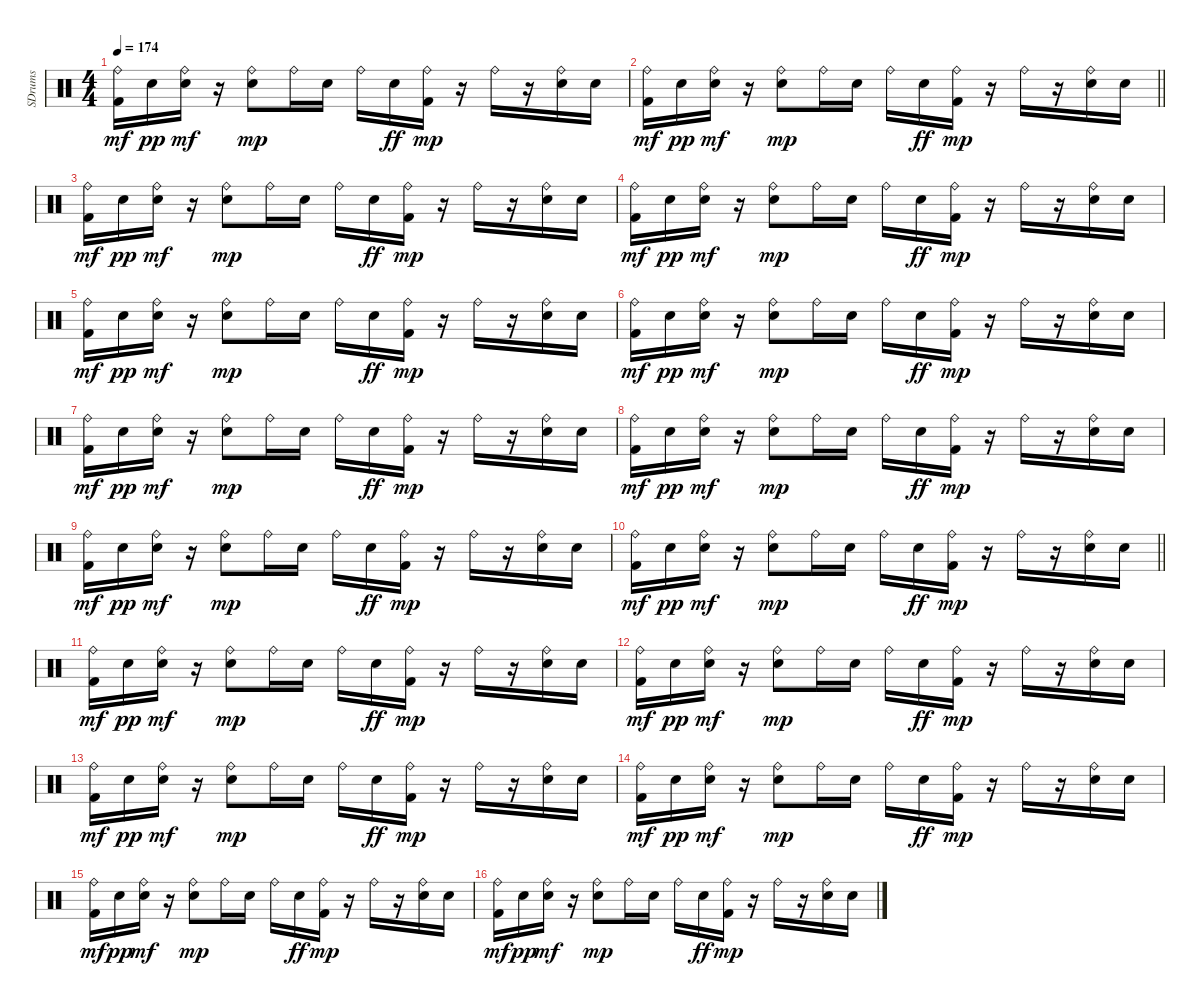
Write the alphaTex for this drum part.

\track ("SDrums" "SDrums") {instrument percussion}
\staff {score}
\articulation defaults
\ts (4 4)
\tempo 174
\clef neutral
\ks c
("Kick (hit) 2" "Ride (bell)").16{dy mf} "Snare (hit) 2".16{dy pp} ("Snare (hit) 2" "Ride (bell)").16{dy mf} r.16 ("Snare (hit) 2" "Ride (bell)").8{dy mp} "Ride (bell)".16 "Snare (hit) 2".16 "Ride (bell)".16 "Snare (hit) 2".16{dy ff} ("Kick (hit) 2" "Ride (bell)").16{dy mp} r.16 "Ride (bell)".16 r.16 ("Snare (hit) 2" "Ride (bell)").16 "Snare (hit) 2".16 |
\barLineRight lightlight
("Kick (hit) 2" "Ride (bell)").16{dy mf} "Snare (hit) 2".16{dy pp} ("Snare (hit) 2" "Ride (bell)").16{dy mf} r.16 ("Snare (hit) 2" "Ride (bell)").8{dy mp} "Ride (bell)".16 "Snare (hit) 2".16 "Ride (bell)".16 "Snare (hit) 2".16{dy ff} ("Kick (hit) 2" "Ride (bell)").16{dy mp} r.16 "Ride (bell)".16 r.16 ("Snare (hit) 2" "Ride (bell)").16 "Snare (hit) 2".16 |
("Kick (hit) 2" "Ride (bell)").16{dy mf} "Snare (hit) 2".16{dy pp} ("Snare (hit) 2" "Ride (bell)").16{dy mf} r.16 ("Snare (hit) 2" "Ride (bell)").8{dy mp} "Ride (bell)".16 "Snare (hit) 2".16 "Ride (bell)".16 "Snare (hit) 2".16{dy ff} ("Kick (hit) 2" "Ride (bell)").16{dy mp} r.16 "Ride (bell)".16 r.16 ("Snare (hit) 2" "Ride (bell)").16 "Snare (hit) 2".16 |
("Kick (hit) 2" "Ride (bell)").16{dy mf} "Snare (hit) 2".16{dy pp} ("Snare (hit) 2" "Ride (bell)").16{dy mf} r.16 ("Snare (hit) 2" "Ride (bell)").8{dy mp} "Ride (bell)".16 "Snare (hit) 2".16 "Ride (bell)".16 "Snare (hit) 2".16{dy ff} ("Kick (hit) 2" "Ride (bell)").16{dy mp} r.16 "Ride (bell)".16 r.16 ("Snare (hit) 2" "Ride (bell)").16 "Snare (hit) 2".16 |
("Kick (hit) 2" "Ride (bell)").16{dy mf} "Snare (hit) 2".16{dy pp} ("Snare (hit) 2" "Ride (bell)").16{dy mf} r.16 ("Snare (hit) 2" "Ride (bell)").8{dy mp} "Ride (bell)".16 "Snare (hit) 2".16 "Ride (bell)".16 "Snare (hit) 2".16{dy ff} ("Kick (hit) 2" "Ride (bell)").16{dy mp} r.16 "Ride (bell)".16 r.16 ("Snare (hit) 2" "Ride (bell)").16 "Snare (hit) 2".16 |
("Kick (hit) 2" "Ride (bell)").16{dy mf} "Snare (hit) 2".16{dy pp} ("Snare (hit) 2" "Ride (bell)").16{dy mf} r.16 ("Snare (hit) 2" "Ride (bell)").8{dy mp} "Ride (bell)".16 "Snare (hit) 2".16 "Ride (bell)".16 "Snare (hit) 2".16{dy ff} ("Kick (hit) 2" "Ride (bell)").16{dy mp} r.16 "Ride (bell)".16 r.16 ("Snare (hit) 2" "Ride (bell)").16 "Snare (hit) 2".16 |
("Kick (hit) 2" "Ride (bell)").16{dy mf} "Snare (hit) 2".16{dy pp} ("Snare (hit) 2" "Ride (bell)").16{dy mf} r.16 ("Snare (hit) 2" "Ride (bell)").8{dy mp} "Ride (bell)".16 "Snare (hit) 2".16 "Ride (bell)".16 "Snare (hit) 2".16{dy ff} ("Kick (hit) 2" "Ride (bell)").16{dy mp} r.16 "Ride (bell)".16 r.16 ("Snare (hit) 2" "Ride (bell)").16 "Snare (hit) 2".16 |
("Kick (hit) 2" "Ride (bell)").16{dy mf} "Snare (hit) 2".16{dy pp} ("Snare (hit) 2" "Ride (bell)").16{dy mf} r.16 ("Snare (hit) 2" "Ride (bell)").8{dy mp} "Ride (bell)".16 "Snare (hit) 2".16 "Ride (bell)".16 "Snare (hit) 2".16{dy ff} ("Kick (hit) 2" "Ride (bell)").16{dy mp} r.16 "Ride (bell)".16 r.16 ("Snare (hit) 2" "Ride (bell)").16 "Snare (hit) 2".16 |
("Kick (hit) 2" "Ride (bell)").16{dy mf} "Snare (hit) 2".16{dy pp} ("Snare (hit) 2" "Ride (bell)").16{dy mf} r.16 ("Snare (hit) 2" "Ride (bell)").8{dy mp} "Ride (bell)".16 "Snare (hit) 2".16 "Ride (bell)".16 "Snare (hit) 2".16{dy ff} ("Kick (hit) 2" "Ride (bell)").16{dy mp} r.16 "Ride (bell)".16 r.16 ("Snare (hit) 2" "Ride (bell)").16 "Snare (hit) 2".16 |
\barLineRight lightlight
("Kick (hit) 2" "Ride (bell)").16{dy mf} "Snare (hit) 2".16{dy pp} ("Snare (hit) 2" "Ride (bell)").16{dy mf} r.16 ("Snare (hit) 2" "Ride (bell)").8{dy mp} "Ride (bell)".16 "Snare (hit) 2".16 "Ride (bell)".16 "Snare (hit) 2".16{dy ff} ("Kick (hit) 2" "Ride (bell)").16{dy mp} r.16 "Ride (bell)".16 r.16 ("Snare (hit) 2" "Ride (bell)").16 "Snare (hit) 2".16 |
("Kick (hit) 2" "Ride (bell)").16{dy mf} "Snare (hit) 2".16{dy pp} ("Snare (hit) 2" "Ride (bell)").16{dy mf} r.16 ("Snare (hit) 2" "Ride (bell)").8{dy mp} "Ride (bell)".16 "Snare (hit) 2".16 "Ride (bell)".16 "Snare (hit) 2".16{dy ff} ("Kick (hit) 2" "Ride (bell)").16{dy mp} r.16 "Ride (bell)".16 r.16 ("Snare (hit) 2" "Ride (bell)").16 "Snare (hit) 2".16 |
("Kick (hit) 2" "Ride (bell)").16{dy mf} "Snare (hit) 2".16{dy pp} ("Snare (hit) 2" "Ride (bell)").16{dy mf} r.16 ("Snare (hit) 2" "Ride (bell)").8{dy mp} "Ride (bell)".16 "Snare (hit) 2".16 "Ride (bell)".16 "Snare (hit) 2".16{dy ff} ("Kick (hit) 2" "Ride (bell)").16{dy mp} r.16 "Ride (bell)".16 r.16 ("Snare (hit) 2" "Ride (bell)").16 "Snare (hit) 2".16 |
("Kick (hit) 2" "Ride (bell)").16{dy mf} "Snare (hit) 2".16{dy pp} ("Snare (hit) 2" "Ride (bell)").16{dy mf} r.16 ("Snare (hit) 2" "Ride (bell)").8{dy mp} "Ride (bell)".16 "Snare (hit) 2".16 "Ride (bell)".16 "Snare (hit) 2".16{dy ff} ("Kick (hit) 2" "Ride (bell)").16{dy mp} r.16 "Ride (bell)".16 r.16 ("Snare (hit) 2" "Ride (bell)").16 "Snare (hit) 2".16 |
("Kick (hit) 2" "Ride (bell)").16{dy mf} "Snare (hit) 2".16{dy pp} ("Snare (hit) 2" "Ride (bell)").16{dy mf} r.16 ("Snare (hit) 2" "Ride (bell)").8{dy mp} "Ride (bell)".16 "Snare (hit) 2".16 "Ride (bell)".16 "Snare (hit) 2".16{dy ff} ("Kick (hit) 2" "Ride (bell)").16{dy mp} r.16 "Ride (bell)".16 r.16 ("Snare (hit) 2" "Ride (bell)").16 "Snare (hit) 2".16 |
("Kick (hit) 2" "Ride (bell)").16{dy mf} "Snare (hit) 2".16{dy pp} ("Snare (hit) 2" "Ride (bell)").16{dy mf} r.16 ("Snare (hit) 2" "Ride (bell)").8{dy mp} "Ride (bell)".16 "Snare (hit) 2".16 "Ride (bell)".16 "Snare (hit) 2".16{dy ff} ("Kick (hit) 2" "Ride (bell)").16{dy mp} r.16 "Ride (bell)".16 r.16 ("Snare (hit) 2" "Ride (bell)").16 "Snare (hit) 2".16 |
("Kick (hit) 2" "Ride (bell)").16{dy mf} "Snare (hit) 2".16{dy pp} ("Snare (hit) 2" "Ride (bell)").16{dy mf} r.16 ("Snare (hit) 2" "Ride (bell)").8{dy mp} "Ride (bell)".16 "Snare (hit) 2".16 "Ride (bell)".16 "Snare (hit) 2".16{dy ff} ("Kick (hit) 2" "Ride (bell)").16{dy mp} r.16 "Ride (bell)".16 r.16 ("Snare (hit) 2" "Ride (bell)").16 "Snare (hit) 2".16
